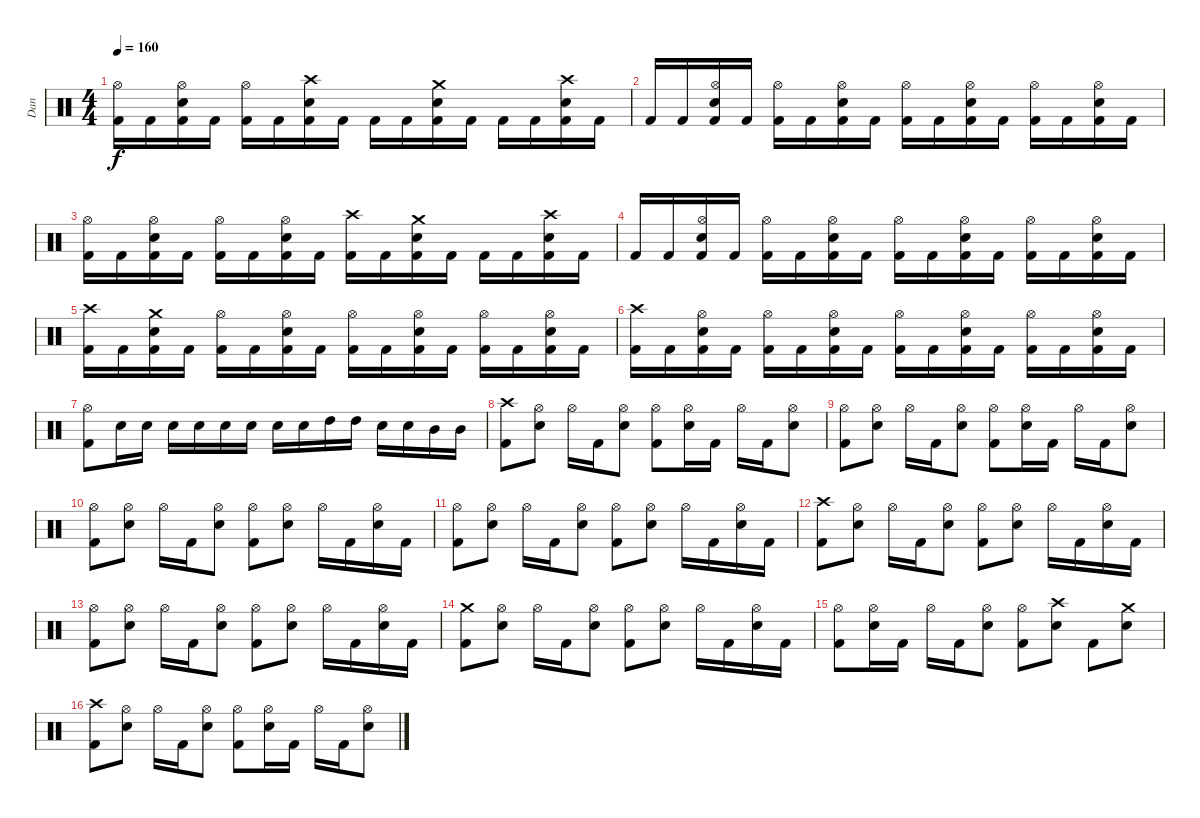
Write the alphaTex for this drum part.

\track ("Dan " "Dan ") {instrument percussion}
\staff {score}
\articulation defaults
\ts (4 4)
\tempo 160
\clef neutral
\ks c
("Kick (hit) 2" "Hi-Hat (open)").16{dy f} "Kick (hit) 2".16 ("Metronome (bell)" "Kick (hit) 2" "Hi-Hat (open)").16 "Kick (hit) 2".16 ("Kick (hit) 2" "Hi-Hat (open)").16 "Kick (hit) 2".16 ("Metronome (bell)" "Kick (hit) 2" "Crash high (hit)").16 "Kick (hit) 2".16 "Kick (hit) 2".16 "Kick (hit) 2".16 ("Metronome (bell)" "Kick (hit) 2" "Crash medium (hit)").16 "Kick (hit) 2".16 "Kick (hit) 2".16 "Kick (hit) 2".16 ("Metronome (bell)" "Kick (hit) 2" "Crash high (hit)").16 "Kick (hit) 2".16 |
"Kick (hit) 2".16 "Kick (hit) 2".16 ("Metronome (bell)" "Kick (hit) 2" "Hi-Hat (open)").16 "Kick (hit) 2".16 ("Kick (hit) 2" "Hi-Hat (open)").16 "Kick (hit) 2".16 ("Metronome (bell)" "Kick (hit) 2" "Hi-Hat (open)").16 "Kick (hit) 2".16 ("Kick (hit) 2" "Hi-Hat (open)").16 "Kick (hit) 2".16 ("Metronome (bell)" "Kick (hit) 2" "Hi-Hat (open)").16 "Kick (hit) 2".16 ("Kick (hit) 2" "Hi-Hat (open)").16 "Kick (hit) 2".16 ("Metronome (bell)" "Kick (hit) 2" "Hi-Hat (open)").16 "Kick (hit) 2".16 |
("Kick (hit) 2" "Hi-Hat (open)").16 "Kick (hit) 2".16 ("Metronome (bell)" "Kick (hit) 2" "Hi-Hat (open)").16 "Kick (hit) 2".16 ("Kick (hit) 2" "Hi-Hat (open)").16 "Kick (hit) 2".16 ("Metronome (bell)" "Kick (hit) 2" "Hi-Hat (open)").16 "Kick (hit) 2".16 ("Kick (hit) 2" "Crash high (hit)").16 "Kick (hit) 2".16 ("Metronome (bell)" "Kick (hit) 2" "Crash medium (hit)").16 "Kick (hit) 2".16 "Kick (hit) 2".16 "Kick (hit) 2".16 ("Metronome (bell)" "Kick (hit) 2" "Crash high (hit)").16 "Kick (hit) 2".16 |
"Kick (hit) 2".16 "Kick (hit) 2".16 ("Metronome (bell)" "Kick (hit) 2" "Hi-Hat (open)").16 "Kick (hit) 2".16 ("Kick (hit) 2" "Hi-Hat (open)").16 "Kick (hit) 2".16 ("Metronome (bell)" "Kick (hit) 2" "Hi-Hat (open)").16 "Kick (hit) 2".16 ("Kick (hit) 2" "Hi-Hat (open)").16 "Kick (hit) 2".16 ("Metronome (bell)" "Kick (hit) 2" "Hi-Hat (open)").16 "Kick (hit) 2".16 ("Kick (hit) 2" "Hi-Hat (open)").16 "Kick (hit) 2".16 ("Metronome (bell)" "Kick (hit) 2" "Hi-Hat (open)").16 "Kick (hit) 2".16 |
("Kick (hit) 2" "Crash high (hit)").16 "Kick (hit) 2".16 ("Metronome (bell)" "Kick (hit) 2" "Crash medium (hit)").16 "Kick (hit) 2".16 ("Kick (hit) 2" "Hi-Hat (open)").16 "Kick (hit) 2".16 ("Metronome (bell)" "Kick (hit) 2" "Hi-Hat (open)").16 "Kick (hit) 2".16 ("Kick (hit) 2" "Hi-Hat (open)").16 "Kick (hit) 2".16 ("Metronome (bell)" "Kick (hit) 2" "Hi-Hat (open)").16 "Kick (hit) 2".16 ("Kick (hit) 2" "Hi-Hat (open)").16 "Kick (hit) 2".16 ("Metronome (bell)" "Kick (hit) 2" "Hi-Hat (open)").16 "Kick (hit) 2".16 |
("Kick (hit) 2" "Crash high (hit)").16 "Kick (hit) 2".16 ("Metronome (bell)" "Kick (hit) 2" "Hi-Hat (open)").16 "Kick (hit) 2".16 ("Kick (hit) 2" "Hi-Hat (open)").16 "Kick (hit) 2".16 ("Metronome (bell)" "Kick (hit) 2" "Hi-Hat (open)").16 "Kick (hit) 2".16 ("Kick (hit) 2" "Hi-Hat (open)").16 "Kick (hit) 2".16 ("Metronome (bell)" "Kick (hit) 2" "Hi-Hat (open)").16 "Kick (hit) 2".16 ("Kick (hit) 2" "Hi-Hat (open)").16 "Kick (hit) 2".16 ("Metronome (bell)" "Kick (hit) 2" "Hi-Hat (open)").16 "Kick (hit) 2".16 |
("Kick (hit) 2" "Hi-Hat (open)").8 "Metronome (bell)".16 "Metronome (bell)".16 "Metronome (bell)".16 "Metronome (bell)".16 "Metronome (bell)".16 "Metronome (bell)".16 "Metronome (bell)".16 "Metronome (bell)".16 "High Tom (hit)".16 "High Tom (hit)".16 "Metronome (bell)".16 "Metronome (bell)".16 "Mid Tom (hit)".16 "Mid Tom (hit)".16 |
("Kick (hit) 2" "Crash high (hit)").8 ("Metronome (bell)" "Hi-Hat (open)").8 "Hi-Hat (open)".16 "Kick (hit) 2".16 ("Metronome (bell)" "Hi-Hat (open)").8 ("Kick (hit) 2" "Hi-Hat (open)").8 ("Metronome (bell)" "Hi-Hat (open)").16 "Kick (hit) 2".16 "Hi-Hat (open)".16 "Kick (hit) 2".16 ("Metronome (bell)" "Hi-Hat (open)").8 |
("Kick (hit) 2" "Hi-Hat (open)").8 ("Metronome (bell)" "Hi-Hat (open)").8 "Hi-Hat (open)".16 "Kick (hit) 2".16 ("Metronome (bell)" "Hi-Hat (open)").8 ("Kick (hit) 2" "Hi-Hat (open)").8 ("Metronome (bell)" "Hi-Hat (open)").16 "Kick (hit) 2".16 "Hi-Hat (open)".16 "Kick (hit) 2".16 ("Metronome (bell)" "Hi-Hat (open)").8 |
("Kick (hit) 2" "Hi-Hat (open)").8 ("Metronome (bell)" "Hi-Hat (open)").8 "Hi-Hat (open)".16 "Kick (hit) 2".16 ("Metronome (bell)" "Hi-Hat (open)").8 ("Kick (hit) 2" "Hi-Hat (open)").8 ("Metronome (bell)" "Hi-Hat (open)").8 "Hi-Hat (open)".16 "Kick (hit) 2".16 ("Metronome (bell)" "Hi-Hat (open)").16 "Kick (hit) 2".16 |
("Kick (hit) 2" "Hi-Hat (open)").8 ("Metronome (bell)" "Hi-Hat (open)").8 "Hi-Hat (open)".16 "Kick (hit) 2".16 ("Metronome (bell)" "Hi-Hat (open)").8 ("Kick (hit) 2" "Hi-Hat (open)").8 ("Metronome (bell)" "Hi-Hat (open)").8 "Hi-Hat (open)".16 "Kick (hit) 2".16 ("Metronome (bell)" "Hi-Hat (open)").16 "Kick (hit) 2".16 |
("Kick (hit) 2" "Crash high (hit)").8 ("Metronome (bell)" "Hi-Hat (open)").8 "Hi-Hat (open)".16 "Kick (hit) 2".16 ("Metronome (bell)" "Hi-Hat (open)").8 ("Kick (hit) 2" "Hi-Hat (open)").8 ("Metronome (bell)" "Hi-Hat (open)").8 "Hi-Hat (open)".16 "Kick (hit) 2".16 ("Metronome (bell)" "Hi-Hat (open)").16 "Kick (hit) 2".16 |
("Kick (hit) 2" "Hi-Hat (open)").8 ("Metronome (bell)" "Hi-Hat (open)").8 "Hi-Hat (open)".16 "Kick (hit) 2".16 ("Metronome (bell)" "Hi-Hat (open)").8 ("Kick (hit) 2" "Hi-Hat (open)").8 ("Metronome (bell)" "Hi-Hat (open)").8 "Hi-Hat (open)".16 "Kick (hit) 2".16 ("Metronome (bell)" "Hi-Hat (open)").16 "Kick (hit) 2".16 |
("Kick (hit) 2" "Crash medium (hit)").8 ("Metronome (bell)" "Hi-Hat (open)").8 "Hi-Hat (open)".16 "Kick (hit) 2".16 ("Metronome (bell)" "Hi-Hat (open)").8 ("Kick (hit) 2" "Hi-Hat (open)").8 ("Metronome (bell)" "Hi-Hat (open)").8 "Hi-Hat (open)".16 "Kick (hit) 2".16 ("Metronome (bell)" "Hi-Hat (open)").16 "Kick (hit) 2".16 |
("Kick (hit) 2" "Hi-Hat (open)").8 ("Metronome (bell)" "Hi-Hat (open)").16 "Kick (hit) 2".16 "Hi-Hat (open)".16 "Kick (hit) 2".16 ("Metronome (bell)" "Hi-Hat (open)").8 ("Kick (hit) 2" "Hi-Hat (open)").8 ("Metronome (bell)" "Crash high (hit)").8 "Kick (hit) 2".8 ("Metronome (bell)" "Crash medium (hit)").8 |
("Kick (hit) 2" "Crash high (hit)").8 ("Metronome (bell)" "Hi-Hat (open)").8 "Hi-Hat (open)".16 "Kick (hit) 2".16 ("Metronome (bell)" "Hi-Hat (open)").8 ("Kick (hit) 2" "Hi-Hat (open)").8 ("Metronome (bell)" "Hi-Hat (open)").16 "Kick (hit) 2".16 "Hi-Hat (open)".16 "Kick (hit) 2".16 ("Metronome (bell)" "Hi-Hat (open)").8
